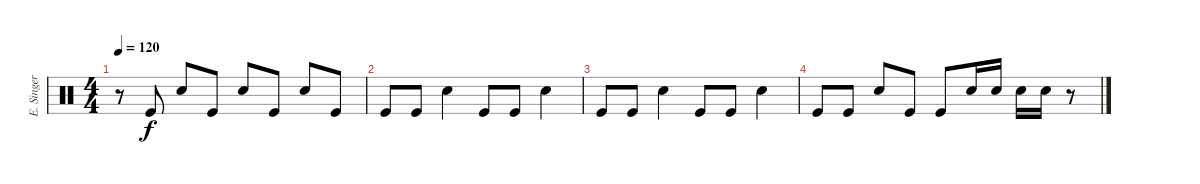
\track ("E. Singer - Drums" "E. Singer ") {instrument percussion}
\staff {score}
\articulation defaults
\ts (4 4)
\tempo 120
\clef neutral
\ks c
r.8{dy f} "Kick (hit)".8 "Snare (hit) 2".8 "Kick (hit)".8 "Snare (hit) 2".8 "Kick (hit)".8 "Snare (hit) 2".8 "Kick (hit)".8 |
"Kick (hit)".8 "Kick (hit)".8 "Snare (hit) 2".4 "Kick (hit)".8 "Kick (hit)".8 "Snare (hit) 2".4 |
"Kick (hit)".8 "Kick (hit)".8 "Snare (hit) 2".4 "Kick (hit)".8 "Kick (hit)".8 "Snare (hit) 2".4 |
"Kick (hit)".8 "Kick (hit)".8 "Snare (hit) 2".8 "Kick (hit)".8 "Kick (hit)".8 "Snare (hit) 2".16 "Snare (hit) 2".16 "Snare (hit) 2".16 "Snare (hit) 2".16 r.8
